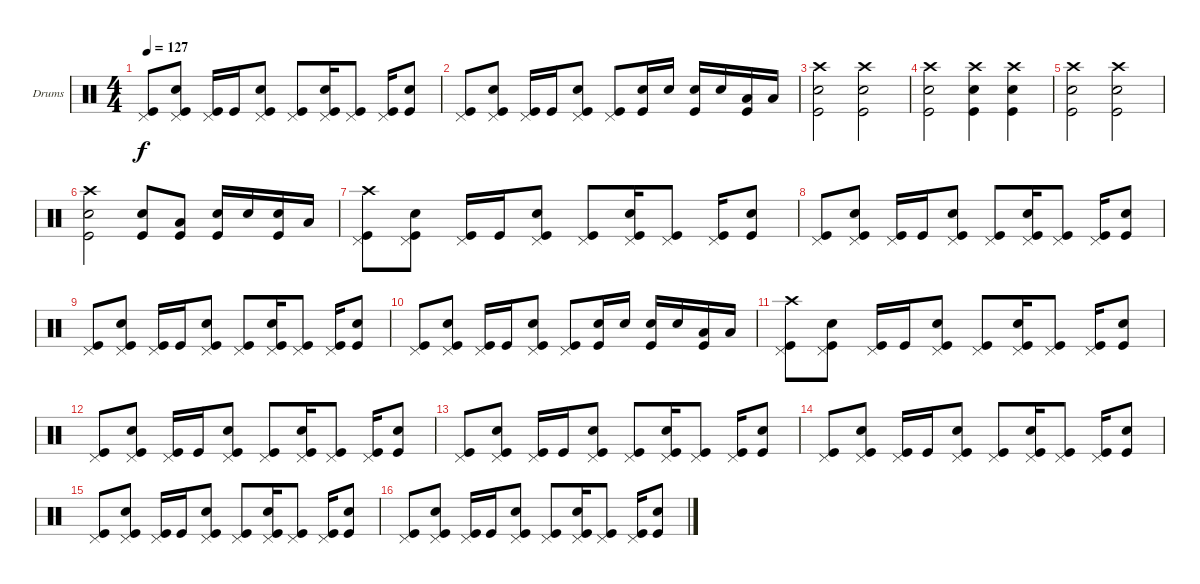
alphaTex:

\bracketExtendMode groupsimilarinstruments
\firstSystemTrackNameOrientation horizontal
\otherSystemsTrackNameOrientation horizontal
\track ("Drumkit" "Drums") {instrument percussion}
\staff {score}
\articulation defaults
\ts (4 4)
\tempo 127
\clef neutral
\ks c
("Pedal Hi-Hat (hit)" "Kick (hit)").8{dy f} ("Pedal Hi-Hat (hit)" "Snare (hit) 2" "Kick (hit)").8 ("Pedal Hi-Hat (hit)" "Kick (hit)").16 "Kick (hit)".16 ("Pedal Hi-Hat (hit)" "Snare (hit) 2" "Kick (hit)").8 ("Pedal Hi-Hat (hit)" "Kick (hit)").8 ("Pedal Hi-Hat (hit)" "Snare (hit) 2" "Kick (hit)").16 ("Pedal Hi-Hat (hit)" "Kick (hit)").8 ("Pedal Hi-Hat (hit)" "Kick (hit)").16 ("Snare (hit) 2" "Kick (hit)").8 |
("Pedal Hi-Hat (hit)" "Kick (hit)").8 ("Pedal Hi-Hat (hit)" "Snare (hit) 2" "Kick (hit)").8 ("Pedal Hi-Hat (hit)" "Kick (hit)").16 "Kick (hit)".16 ("Pedal Hi-Hat (hit)" "Snare (hit) 2" "Kick (hit)").8 ("Pedal Hi-Hat (hit)" "Kick (hit)").8 ("Snare (hit) 2" "Kick (hit)").16 "Snare (hit) 2".16 ("Snare (hit) 2" "Kick (hit)").16 "Snare (hit) 2".16 ("Kick (hit)" "Low Tom (hit)").16 "Low Tom (hit)".16 |
("Crash high (hit)" "Snare (hit) 2" "Kick (hit)").2 ("Crash high (hit)" "Snare (hit) 2" "Kick (hit)").2 |
("Crash high (hit)" "Snare (hit) 2" "Kick (hit)").2 ("Crash high (hit)" "Snare (hit) 2" "Kick (hit)").4 ("Crash high (hit)" "Snare (hit) 2" "Kick (hit)").4 |
("Crash high (hit)" "Snare (hit) 2" "Kick (hit)").2 ("Crash high (hit)" "Snare (hit) 2" "Kick (hit)").2 |
("Crash high (hit)" "Snare (hit) 2" "Kick (hit)").2 ("Snare (hit) 2" "Kick (hit)").8 ("Kick (hit)" "Low Tom (hit)").8 ("Snare (hit) 2" "Kick (hit)").16 "Snare (hit) 2".16 ("Snare (hit) 2" "Kick (hit)").16 "Low Tom (hit)".16 |
("Pedal Hi-Hat (hit)" "Crash high (hit)" "Kick (hit)").8 ("Pedal Hi-Hat (hit)" "Snare (hit) 2" "Kick (hit)").8 ("Pedal Hi-Hat (hit)" "Kick (hit)").16 "Kick (hit)".16 ("Pedal Hi-Hat (hit)" "Snare (hit) 2" "Kick (hit)").8 ("Pedal Hi-Hat (hit)" "Kick (hit)").8 ("Pedal Hi-Hat (hit)" "Snare (hit) 2" "Kick (hit)").16 ("Pedal Hi-Hat (hit)" "Kick (hit)").8 ("Pedal Hi-Hat (hit)" "Kick (hit)").16 ("Snare (hit) 2" "Kick (hit)").8 |
("Pedal Hi-Hat (hit)" "Kick (hit)").8 ("Pedal Hi-Hat (hit)" "Snare (hit) 2" "Kick (hit)").8 ("Pedal Hi-Hat (hit)" "Kick (hit)").16 "Kick (hit)".16 ("Pedal Hi-Hat (hit)" "Snare (hit) 2" "Kick (hit)").8 ("Pedal Hi-Hat (hit)" "Kick (hit)").8 ("Pedal Hi-Hat (hit)" "Snare (hit) 2" "Kick (hit)").16 ("Pedal Hi-Hat (hit)" "Kick (hit)").8 ("Pedal Hi-Hat (hit)" "Kick (hit)").16 ("Snare (hit) 2" "Kick (hit)").8 |
("Pedal Hi-Hat (hit)" "Kick (hit)").8 ("Pedal Hi-Hat (hit)" "Snare (hit) 2" "Kick (hit)").8 ("Pedal Hi-Hat (hit)" "Kick (hit)").16 "Kick (hit)".16 ("Pedal Hi-Hat (hit)" "Snare (hit) 2" "Kick (hit)").8 ("Pedal Hi-Hat (hit)" "Kick (hit)").8 ("Pedal Hi-Hat (hit)" "Snare (hit) 2" "Kick (hit)").16 ("Pedal Hi-Hat (hit)" "Kick (hit)").8 ("Pedal Hi-Hat (hit)" "Kick (hit)").16 ("Snare (hit) 2" "Kick (hit)").8 |
("Pedal Hi-Hat (hit)" "Kick (hit)").8 ("Pedal Hi-Hat (hit)" "Snare (hit) 2" "Kick (hit)").8 ("Pedal Hi-Hat (hit)" "Kick (hit)").16 "Kick (hit)".16 ("Pedal Hi-Hat (hit)" "Snare (hit) 2" "Kick (hit)").8 ("Pedal Hi-Hat (hit)" "Kick (hit)").8 ("Snare (hit) 2" "Kick (hit)").16 "Snare (hit) 2".16 ("Snare (hit) 2" "Kick (hit)").16 "Snare (hit) 2".16 ("Kick (hit)" "Low Tom (hit)").16 "Low Tom (hit)".16 |
("Pedal Hi-Hat (hit)" "Crash high (hit)" "Kick (hit)").8 ("Pedal Hi-Hat (hit)" "Snare (hit) 2" "Kick (hit)").8 ("Pedal Hi-Hat (hit)" "Kick (hit)").16 "Kick (hit)".16 ("Pedal Hi-Hat (hit)" "Snare (hit) 2" "Kick (hit)").8 ("Pedal Hi-Hat (hit)" "Kick (hit)").8 ("Pedal Hi-Hat (hit)" "Snare (hit) 2" "Kick (hit)").16 ("Pedal Hi-Hat (hit)" "Kick (hit)").8 ("Pedal Hi-Hat (hit)" "Kick (hit)").16 ("Snare (hit) 2" "Kick (hit)").8 |
("Pedal Hi-Hat (hit)" "Kick (hit)").8 ("Pedal Hi-Hat (hit)" "Snare (hit) 2" "Kick (hit)").8 ("Pedal Hi-Hat (hit)" "Kick (hit)").16 "Kick (hit)".16 ("Pedal Hi-Hat (hit)" "Snare (hit) 2" "Kick (hit)").8 ("Pedal Hi-Hat (hit)" "Kick (hit)").8 ("Pedal Hi-Hat (hit)" "Snare (hit) 2" "Kick (hit)").16 ("Pedal Hi-Hat (hit)" "Kick (hit)").8 ("Pedal Hi-Hat (hit)" "Kick (hit)").16 ("Snare (hit) 2" "Kick (hit)").8 |
("Pedal Hi-Hat (hit)" "Kick (hit)").8 ("Pedal Hi-Hat (hit)" "Snare (hit) 2" "Kick (hit)").8 ("Pedal Hi-Hat (hit)" "Kick (hit)").16 "Kick (hit)".16 ("Pedal Hi-Hat (hit)" "Snare (hit) 2" "Kick (hit)").8 ("Pedal Hi-Hat (hit)" "Kick (hit)").8 ("Pedal Hi-Hat (hit)" "Snare (hit) 2" "Kick (hit)").16 ("Pedal Hi-Hat (hit)" "Kick (hit)").8 ("Pedal Hi-Hat (hit)" "Kick (hit)").16 ("Snare (hit) 2" "Kick (hit)").8 |
("Pedal Hi-Hat (hit)" "Kick (hit)").8 ("Pedal Hi-Hat (hit)" "Snare (hit) 2" "Kick (hit)").8 ("Pedal Hi-Hat (hit)" "Kick (hit)").16 "Kick (hit)".16 ("Pedal Hi-Hat (hit)" "Snare (hit) 2" "Kick (hit)").8 ("Pedal Hi-Hat (hit)" "Kick (hit)").8 ("Pedal Hi-Hat (hit)" "Snare (hit) 2" "Kick (hit)").16 ("Pedal Hi-Hat (hit)" "Kick (hit)").8 ("Pedal Hi-Hat (hit)" "Kick (hit)").16 ("Snare (hit) 2" "Kick (hit)").8 |
("Pedal Hi-Hat (hit)" "Kick (hit)").8 ("Pedal Hi-Hat (hit)" "Snare (hit) 2" "Kick (hit)").8 ("Pedal Hi-Hat (hit)" "Kick (hit)").16 "Kick (hit)".16 ("Pedal Hi-Hat (hit)" "Snare (hit) 2" "Kick (hit)").8 ("Pedal Hi-Hat (hit)" "Kick (hit)").8 ("Pedal Hi-Hat (hit)" "Snare (hit) 2" "Kick (hit)").16 ("Pedal Hi-Hat (hit)" "Kick (hit)").8 ("Pedal Hi-Hat (hit)" "Kick (hit)").16 ("Snare (hit) 2" "Kick (hit)").8 |
("Pedal Hi-Hat (hit)" "Kick (hit)").8 ("Pedal Hi-Hat (hit)" "Snare (hit) 2" "Kick (hit)").8 ("Pedal Hi-Hat (hit)" "Kick (hit)").16 "Kick (hit)".16 ("Pedal Hi-Hat (hit)" "Snare (hit) 2" "Kick (hit)").8 ("Pedal Hi-Hat (hit)" "Kick (hit)").8 ("Pedal Hi-Hat (hit)" "Snare (hit) 2" "Kick (hit)").16 ("Pedal Hi-Hat (hit)" "Kick (hit)").8 ("Pedal Hi-Hat (hit)" "Kick (hit)").16 ("Snare (hit) 2" "Kick (hit)").8
